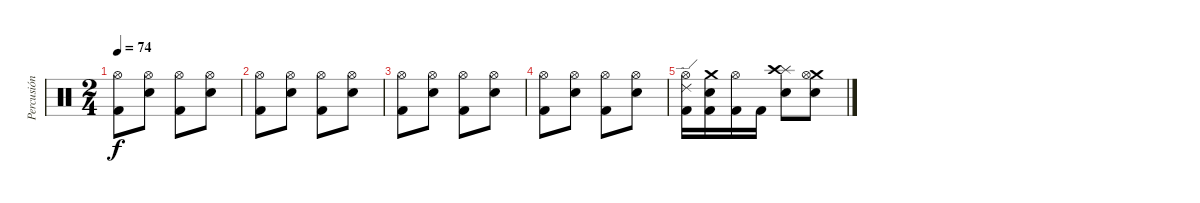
\track ("Percusión" "Percusión") {instrument percussion}
\staff {score}
\articulation defaults
\ts (2 4)
\tempo 74
\clef neutral
\ks c
("Hi-Hat (open)" "Kick (hit) 2").8{dy f} ("Hi-Hat (open)" "Electric Snare (hit)").8 ("Hi-Hat (open)" "Kick (hit) 2").8 ("Hi-Hat (open)" "Electric Snare (hit)").8 |
("Hi-Hat (open)" "Kick (hit) 2").8 ("Hi-Hat (open)" "Electric Snare (hit)").8 ("Hi-Hat (open)" "Kick (hit) 2").8 ("Hi-Hat (open)" "Electric Snare (hit)").8 |
("Hi-Hat (open)" "Kick (hit) 2").8 ("Hi-Hat (open)" "Electric Snare (hit)").8 ("Hi-Hat (open)" "Kick (hit) 2").8 ("Hi-Hat (open)" "Electric Snare (hit)").8 |
("Hi-Hat (open)" "Kick (hit) 2").8 ("Hi-Hat (open)" "Electric Snare (hit)").8 ("Hi-Hat (open)" "Kick (hit) 2").8 ("Hi-Hat (open)" "Electric Snare (hit)").8 |
("Ride (edge) 2" "Hi-Hat (open)" "Kick (hit) 2").16 ("Crash medium (hit)" "Electric Snare (hit)" "Kick (hit) 2").16 ("Hi-Hat (open)" "Kick (hit) 2").16 "Kick (hit) 2".16 ("Splash (hit)" "Crash high (hit)" "Electric Snare (hit)").8 ("Crash medium (hit)" "Hi-Hat (open)" "Electric Snare (hit)").8
